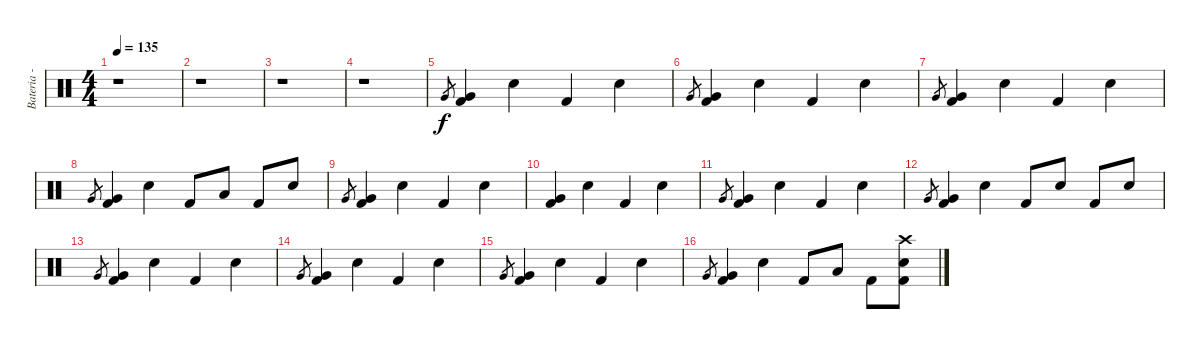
\track ("Bateria - Japinha" "Bateria - ") {instrument percussion}
\staff {score}
\articulation defaults
\ts (4 4)
\tempo 135
\clef neutral
\ks c
r.1{dy f} |
r.1 |
r.1 |
r.1 |
"Very Low Tom (hit)".8{gr} ("Kick (hit) 2" "Very Low Tom (hit)").4 "Snare (hit) 2".4 "Kick (hit) 2".4 "Snare (hit) 2".4 |
"Very Low Tom (hit)".8{gr} ("Kick (hit) 2" "Very Low Tom (hit)").4 "Snare (hit) 2".4 "Kick (hit) 2".4 "Snare (hit) 2".4 |
"Very Low Tom (hit)".8{gr} ("Kick (hit) 2" "Very Low Tom (hit)").4 "Snare (hit) 2".4 "Kick (hit) 2".4 "Snare (hit) 2".4 |
"Very Low Tom (hit)".8{gr} ("Kick (hit) 2" "Very Low Tom (hit)").4 "Snare (hit) 2".4 "Kick (hit) 2".8 "Low Tom (hit)".8 "Kick (hit) 2".8 "Snare (hit) 2".8 |
"Very Low Tom (hit)".8{gr} ("Kick (hit) 2" "Very Low Tom (hit)").4 "Snare (hit) 2".4 "Kick (hit) 2".4 "Snare (hit) 2".4 |
("Kick (hit) 2" "Very Low Tom (hit)").4 "Snare (hit) 2".4 "Kick (hit) 2".4 "Snare (hit) 2".4 |
"Very Low Tom (hit)".8{gr} ("Kick (hit) 2" "Very Low Tom (hit)").4 "Snare (hit) 2".4 "Kick (hit) 2".4 "Snare (hit) 2".4 |
"Very Low Tom (hit)".8{gr} ("Kick (hit) 2" "Very Low Tom (hit)").4 "Snare (hit) 2".4 "Kick (hit) 2".8 "Snare (hit) 2".8 "Kick (hit) 2".8 "Snare (hit) 2".8 |
"Very Low Tom (hit)".8{gr} ("Kick (hit) 2" "Very Low Tom (hit)").4 "Snare (hit) 2".4 "Kick (hit) 2".4 "Snare (hit) 2".4 |
"Very Low Tom (hit)".8{gr} ("Kick (hit) 2" "Very Low Tom (hit)").4 "Snare (hit) 2".4 "Kick (hit) 2".4 "Snare (hit) 2".4 |
"Very Low Tom (hit)".8{gr} ("Kick (hit) 2" "Very Low Tom (hit)").4 "Snare (hit) 2".4 "Kick (hit) 2".4 "Snare (hit) 2".4 |
"Very Low Tom (hit)".8{gr} ("Kick (hit) 2" "Very Low Tom (hit)").4 "Snare (hit) 2".4 "Kick (hit) 2".8 "Low Tom (hit)".8 "Kick (hit) 2".8 ("Crash high (hit)" "Kick (hit) 2" "Snare (hit) 2").8
